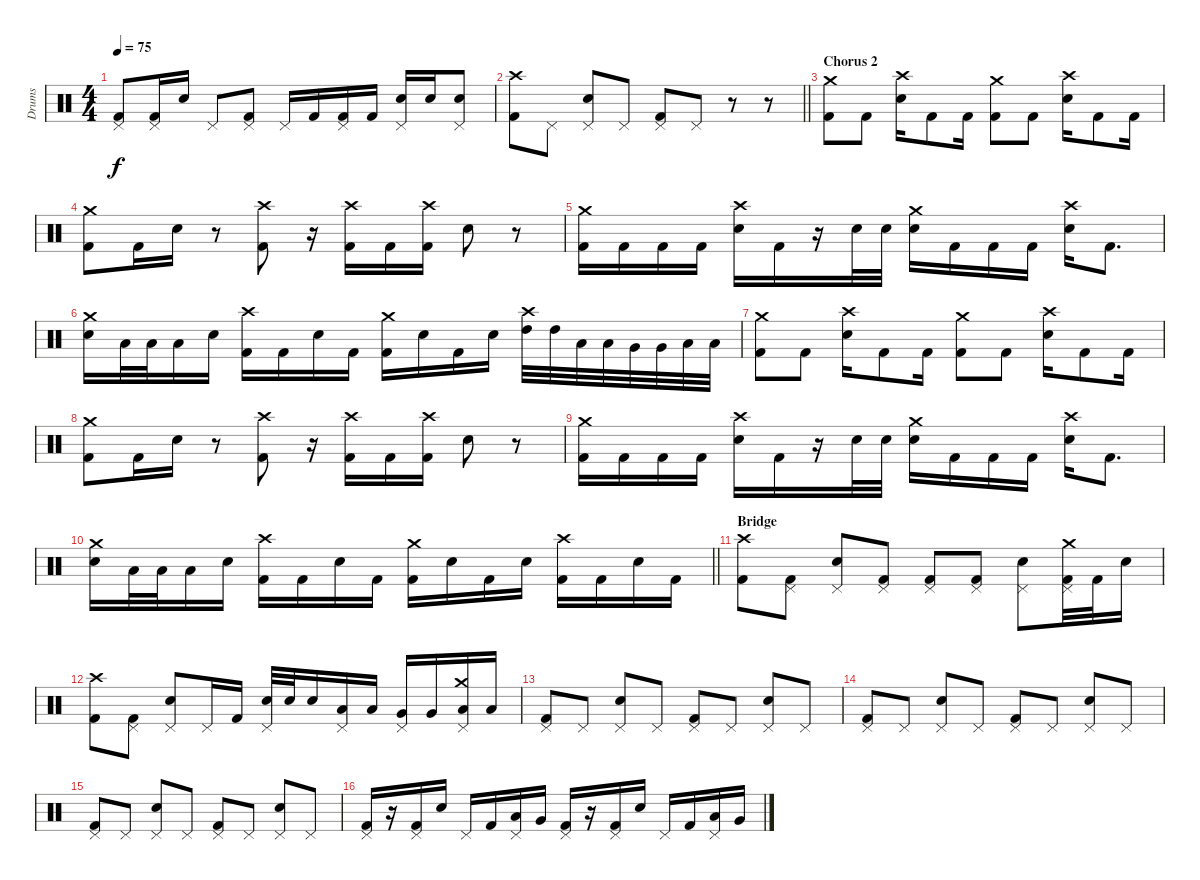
\track ("Drums" "Drums") {instrument percussion}
\staff {score}
\articulation defaults
\ts (4 4)
\tempo 75
\clef neutral
\ks c
("Pedal Hi-Hat (hit)" "Kick (hit) 2").8{dy f} ("Pedal Hi-Hat (hit)" "Kick (hit) 2").16 "Snare (hit) 2".16 "Pedal Hi-Hat (hit)".8 ("Pedal Hi-Hat (hit)" "Kick (hit) 2").8 "Pedal Hi-Hat (hit)".16 "Kick (hit) 2".16 ("Pedal Hi-Hat (hit)" "Kick (hit) 2").16 "Kick (hit) 2".16 ("Pedal Hi-Hat (hit)" "Snare (hit) 2").16 "Snare (hit) 2".16 ("Pedal Hi-Hat (hit)" "Snare (hit) 2").8 |
\barLineRight lightlight
("Crash high (hit)" "Kick (hit) 2").8 "Pedal Hi-Hat (hit)".8 ("Pedal Hi-Hat (hit)" "Snare (hit) 2").8 "Pedal Hi-Hat (hit)".8 ("Pedal Hi-Hat (hit)" "Kick (hit) 2").8 "Pedal Hi-Hat (hit)".8 r.8 r.8 |
\section ("" "Chorus 2")
("Crash medium (hit)" "Kick (hit) 2").8 "Kick (hit) 2".8 ("Crash high (hit)" "Snare (hit) 2").16 "Kick (hit) 2".8 "Kick (hit) 2".16 ("Crash medium (hit)" "Kick (hit) 2").8 "Kick (hit) 2".8 ("Crash high (hit)" "Snare (hit) 2").16 "Kick (hit) 2".8 "Kick (hit) 2".16 |
("Crash medium (hit)" "Kick (hit) 2").8 "Kick (hit) 2".16 "Snare (hit) 2".16 r.8 ("Crash high (hit)" "Kick (hit) 2").8 r.16 ("Crash high (hit)" "Kick (hit) 2").16 "Kick (hit) 2".16 ("Crash high (hit)" "Kick (hit) 2").16 "Snare (hit) 2".8 r.8 |
("Crash medium (hit)" "Kick (hit) 2").16 "Kick (hit) 2".16 "Kick (hit) 2".16 "Kick (hit) 2".16 ("Crash high (hit)" "Snare (hit) 2").16 "Kick (hit) 2".16 r.16 "Snare (hit) 2".32 "Snare (hit) 2".32 ("Crash medium (hit)" "Snare (hit) 2").16 "Kick (hit) 2".16 "Kick (hit) 2".16 "Kick (hit) 2".16 ("Crash high (hit)" "Snare (hit) 2").16 "Kick (hit) 2".8{d} |
("Crash medium (hit)" "Snare (hit) 2").16 "Low Tom (hit)".32 "Low Tom (hit)".32 "Low Tom (hit)".16 "Snare (hit) 2".16 ("Crash high (hit)" "Kick (hit) 2").16 "Kick (hit) 2".16 "Snare (hit) 2".16 "Kick (hit) 2".16 ("Crash medium (hit)" "Kick (hit) 2").16 "Snare (hit) 2".16 "Kick (hit) 2".16 "Snare (hit) 2".16 ("Crash high (hit)" "High Tom (hit)").32 "High Tom (hit)".32 "Low Tom (hit)".32 "Low Tom (hit)".32 "Very Low Tom (hit)".32 "Very Low Tom (hit)".32 "Low Floor Tom (hit)".32 "Low Floor Tom (hit)".32 |
("Crash medium (hit)" "Kick (hit) 2").8 "Kick (hit) 2".8 ("Crash high (hit)" "Snare (hit) 2").16 "Kick (hit) 2".8 "Kick (hit) 2".16 ("Crash medium (hit)" "Kick (hit) 2").8 "Kick (hit) 2".8 ("Crash high (hit)" "Snare (hit) 2").16 "Kick (hit) 2".8 "Kick (hit) 2".16 |
("Crash medium (hit)" "Kick (hit) 2").8 "Kick (hit) 2".16 "Snare (hit) 2".16 r.8 ("Crash high (hit)" "Kick (hit) 2").8 r.16 ("Crash high (hit)" "Kick (hit) 2").16 "Kick (hit) 2".16 ("Crash high (hit)" "Kick (hit) 2").16 "Snare (hit) 2".8 r.8 |
("Crash medium (hit)" "Kick (hit) 2").16 "Kick (hit) 2".16 "Kick (hit) 2".16 "Kick (hit) 2".16 ("Crash high (hit)" "Snare (hit) 2").16 "Kick (hit) 2".16 r.16 "Snare (hit) 2".32 "Snare (hit) 2".32 ("Crash medium (hit)" "Snare (hit) 2").16 "Kick (hit) 2".16 "Kick (hit) 2".16 "Kick (hit) 2".16 ("Crash high (hit)" "Snare (hit) 2").16 "Kick (hit) 2".8{d} |
\barLineRight lightlight
("Crash medium (hit)" "Snare (hit) 2").16 "Low Tom (hit)".32 "Low Tom (hit)".32 "Low Tom (hit)".16 "Snare (hit) 2".16 ("Crash high (hit)" "Kick (hit) 2").16 "Kick (hit) 2".16 "Snare (hit) 2".16 "Kick (hit) 2".16 ("Crash medium (hit)" "Kick (hit) 2").16 "Snare (hit) 2".16 "Kick (hit) 2".16 "Snare (hit) 2".16 ("Crash high (hit)" "Kick (hit) 2").16 "Kick (hit) 2".16 "Snare (hit) 2".16 "Kick (hit) 2".16 |
\section ("" "Bridge")
("Crash high (hit)" "Kick (hit) 2").8 ("Pedal Hi-Hat (hit)" "Kick (hit) 2").8 ("Pedal Hi-Hat (hit)" "Snare (hit) 2").8 ("Pedal Hi-Hat (hit)" "Kick (hit) 2").8 ("Pedal Hi-Hat (hit)" "Kick (hit) 2").8 ("Pedal Hi-Hat (hit)" "Kick (hit) 2").8 ("Pedal Hi-Hat (hit)" "Snare (hit) 2").8 ("Pedal Hi-Hat (hit)" "Crash medium (hit)" "Kick (hit) 2").32 "Kick (hit) 2".32 "Snare (hit) 2".16 |
("Crash high (hit)" "Kick (hit) 2").8 ("Pedal Hi-Hat (hit)" "Kick (hit) 2").8 ("Pedal Hi-Hat (hit)" "Snare (hit) 2").8 "Pedal Hi-Hat (hit)".16 "Kick (hit) 2".16 ("Pedal Hi-Hat (hit)" "Snare (hit) 2").32 "Snare (hit) 2".32 "Snare (hit) 2".16 ("Pedal Hi-Hat (hit)" "Low Tom (hit)").16 "Low Tom (hit)".16 ("Pedal Hi-Hat (hit)" "Very Low Tom (hit)").16 "Very Low Tom (hit)".16 ("Pedal Hi-Hat (hit)" "Crash medium (hit)" "Low Floor Tom (hit)").16 "Low Floor Tom (hit)".16 |
("Pedal Hi-Hat (hit)" "Kick (hit) 2").8 "Pedal Hi-Hat (hit)".8 ("Pedal Hi-Hat (hit)" "Snare (hit) 2").8 "Pedal Hi-Hat (hit)".8 ("Pedal Hi-Hat (hit)" "Kick (hit) 2").8 "Pedal Hi-Hat (hit)".8 ("Pedal Hi-Hat (hit)" "Snare (hit) 2").8 "Pedal Hi-Hat (hit)".8 |
("Pedal Hi-Hat (hit)" "Kick (hit) 2").8 "Pedal Hi-Hat (hit)".8 ("Pedal Hi-Hat (hit)" "Snare (hit) 2").8 "Pedal Hi-Hat (hit)".8 ("Pedal Hi-Hat (hit)" "Kick (hit) 2").8 "Pedal Hi-Hat (hit)".8 ("Pedal Hi-Hat (hit)" "Snare (hit) 2").8 "Pedal Hi-Hat (hit)".8 |
("Pedal Hi-Hat (hit)" "Kick (hit) 2").8 "Pedal Hi-Hat (hit)".8 ("Pedal Hi-Hat (hit)" "Snare (hit) 2").8 "Pedal Hi-Hat (hit)".8 ("Pedal Hi-Hat (hit)" "Kick (hit) 2").8 "Pedal Hi-Hat (hit)".8 ("Pedal Hi-Hat (hit)" "Snare (hit) 2").8 "Pedal Hi-Hat (hit)".8 |
("Pedal Hi-Hat (hit)" "Kick (hit) 2").16 r.16 ("Pedal Hi-Hat (hit)" "Kick (hit) 2").16 "Snare (hit) 2".16 "Pedal Hi-Hat (hit)".16 "Kick (hit) 2".16 ("Pedal Hi-Hat (hit)" "Low Tom (hit)").16 "Very Low Tom (hit)".16 ("Pedal Hi-Hat (hit)" "Kick (hit) 2").16 r.16 ("Pedal Hi-Hat (hit)" "Kick (hit) 2").16 "Snare (hit) 2".16 "Pedal Hi-Hat (hit)".16 "Kick (hit) 2".16 ("Pedal Hi-Hat (hit)" "Low Tom (hit)").16 "Very Low Tom (hit)".16
